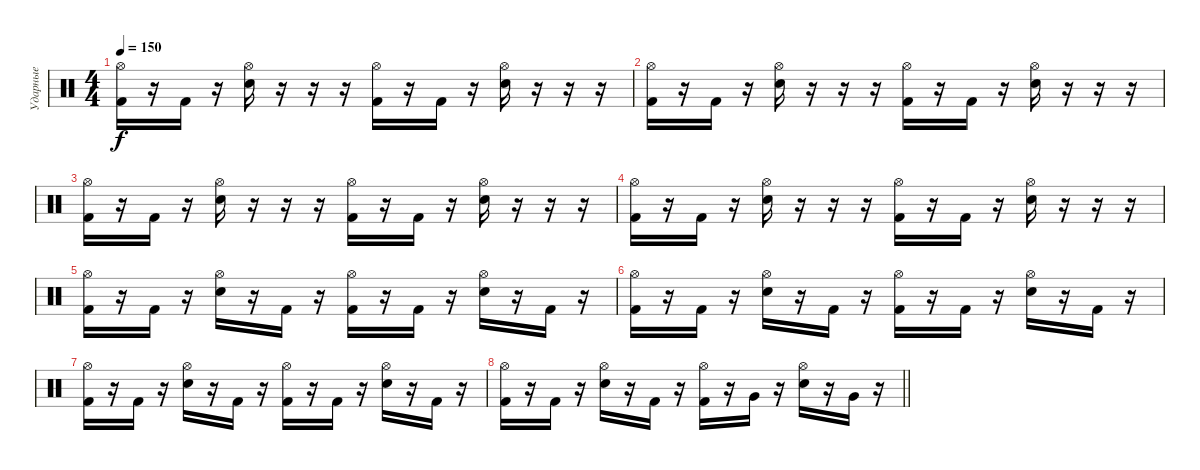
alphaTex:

\track ("Ударные" "Ударные") {instrument percussion}
\staff {score}
\articulation defaults
\ts (4 4)
\tempo 150
\clef neutral
\ks c
("Hi-Hat (open)" "Kick (hit) 2").16{dy f} r.16 "Kick (hit) 2".16 r.16 ("Hi-Hat (open)" "Electric Snare (hit)").16 r.16 r.16 r.16 ("Hi-Hat (open)" "Kick (hit) 2").16 r.16 "Kick (hit) 2".16 r.16 ("Hi-Hat (open)" "Electric Snare (hit)").16 r.16 r.16 r.16 |
("Hi-Hat (open)" "Kick (hit) 2").16 r.16 "Kick (hit) 2".16 r.16 ("Hi-Hat (open)" "Electric Snare (hit)").16 r.16 r.16 r.16 ("Hi-Hat (open)" "Kick (hit) 2").16 r.16 "Kick (hit) 2".16 r.16 ("Hi-Hat (open)" "Electric Snare (hit)").16 r.16 r.16 r.16 |
("Hi-Hat (open)" "Kick (hit) 2").16 r.16 "Kick (hit) 2".16 r.16 ("Hi-Hat (open)" "Electric Snare (hit)").16 r.16 r.16 r.16 ("Hi-Hat (open)" "Kick (hit) 2").16 r.16 "Kick (hit) 2".16 r.16 ("Hi-Hat (open)" "Electric Snare (hit)").16 r.16 r.16 r.16 |
("Hi-Hat (open)" "Kick (hit) 2").16 r.16 "Kick (hit) 2".16 r.16 ("Hi-Hat (open)" "Electric Snare (hit)").16 r.16 r.16 r.16 ("Hi-Hat (open)" "Kick (hit) 2").16 r.16 "Kick (hit) 2".16 r.16 ("Hi-Hat (open)" "Electric Snare (hit)").16 r.16 r.16 r.16 |
("Hi-Hat (open)" "Kick (hit) 2").16 r.16 "Kick (hit) 2".16 r.16 ("Hi-Hat (open)" "Electric Snare (hit)").16 r.16 "Kick (hit) 2".16 r.16 ("Hi-Hat (open)" "Kick (hit) 2").16 r.16 "Kick (hit) 2".16 r.16 ("Hi-Hat (open)" "Electric Snare (hit)").16 r.16 "Kick (hit) 2".16 r.16 |
("Hi-Hat (open)" "Kick (hit) 2").16 r.16 "Kick (hit) 2".16 r.16 ("Hi-Hat (open)" "Electric Snare (hit)").16 r.16 "Kick (hit) 2".16 r.16 ("Hi-Hat (open)" "Kick (hit) 2").16 r.16 "Kick (hit) 2".16 r.16 ("Hi-Hat (open)" "Electric Snare (hit)").16 r.16 "Kick (hit) 2".16 r.16 |
("Hi-Hat (open)" "Kick (hit) 2").16 r.16 "Kick (hit) 2".16 r.16 ("Hi-Hat (open)" "Electric Snare (hit)").16 r.16 "Kick (hit) 2".16 r.16 ("Hi-Hat (open)" "Kick (hit) 2").16 r.16 "Kick (hit) 2".16 r.16 ("Hi-Hat (open)" "Electric Snare (hit)").16 r.16 "Kick (hit) 2".16 r.16 |
\barLineRight lightlight
("Hi-Hat (open)" "Kick (hit) 2").16 r.16 "Kick (hit) 2".16 r.16 ("Hi-Hat (open)" "Electric Snare (hit)").16 r.16 "Kick (hit) 2".16 r.16 ("Hi-Hat (open)" "Kick (hit) 2").16 r.16 "Very Low Tom (hit)".16 r.16 ("Hi-Hat (open)" "Electric Snare (hit)").16 r.16 "Very Low Tom (hit)".16 r.16
